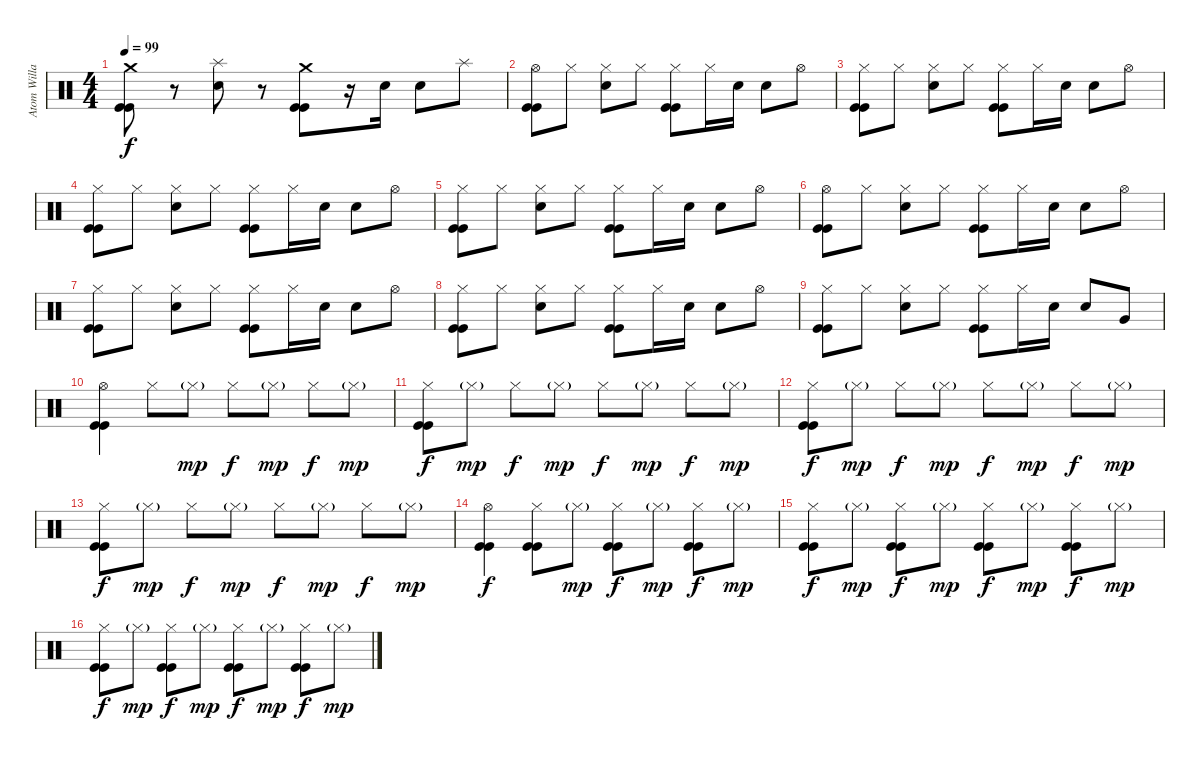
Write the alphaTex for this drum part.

\track ("Atom Willard" "Atom Willa") {instrument percussion}
\staff {score}
\articulation defaults
\ts (4 4)
\tempo 99
\clef neutral
\ks c
("Crash medium (hit)" "Kick (hit)" "Kick (hit)").8{dy f} r.8 ("Splash (hit)" "Electric Snare (hit)").8 r.8 ("Crash medium (hit)" "Kick (hit)" "Kick (hit)").8 r.16 "Electric Snare (hit)".16 "Electric Snare (hit)".8 "Splash (hit)".8 |
("Hi-Hat (open)" "Kick (hit)" "Kick (hit)").8 "Hi-Hat (closed)".8 ("Hi-Hat (closed)" "Electric Snare (hit)").8 "Hi-Hat (closed)".8 ("Hi-Hat (closed)" "Kick (hit)" "Kick (hit)").8 "Hi-Hat (closed)".16 "Electric Snare (hit)".16 "Electric Snare (hit)".8 "Hi-Hat (open)".8 |
("Hi-Hat (closed)" "Kick (hit)" "Kick (hit)").8 "Hi-Hat (closed)".8 ("Hi-Hat (closed)" "Electric Snare (hit)").8 "Hi-Hat (closed)".8 ("Hi-Hat (closed)" "Kick (hit)" "Kick (hit)").8 "Hi-Hat (closed)".16 "Electric Snare (hit)".16 "Electric Snare (hit)".8 "Hi-Hat (open)".8 |
("Hi-Hat (closed)" "Kick (hit)" "Kick (hit)").8 "Hi-Hat (closed)".8 ("Hi-Hat (closed)" "Electric Snare (hit)").8 "Hi-Hat (closed)".8 ("Hi-Hat (closed)" "Kick (hit)" "Kick (hit)").8 "Hi-Hat (closed)".16 "Electric Snare (hit)".16 "Electric Snare (hit)".8 "Hi-Hat (open)".8 |
("Hi-Hat (closed)" "Kick (hit)" "Kick (hit)").8 "Hi-Hat (closed)".8 ("Hi-Hat (closed)" "Electric Snare (hit)").8 "Hi-Hat (closed)".8 ("Hi-Hat (closed)" "Kick (hit)" "Kick (hit)").8 "Hi-Hat (closed)".16 "Electric Snare (hit)".16 "Electric Snare (hit)".8 "Hi-Hat (open)".8 |
("Hi-Hat (open)" "Kick (hit)" "Kick (hit)").8 "Hi-Hat (closed)".8 ("Hi-Hat (closed)" "Electric Snare (hit)").8 "Hi-Hat (closed)".8 ("Hi-Hat (closed)" "Kick (hit)" "Kick (hit)").8 "Hi-Hat (closed)".16 "Electric Snare (hit)".16 "Electric Snare (hit)".8 "Hi-Hat (open)".8 |
("Hi-Hat (closed)" "Kick (hit)" "Kick (hit)").8 "Hi-Hat (closed)".8 ("Hi-Hat (closed)" "Electric Snare (hit)").8 "Hi-Hat (closed)".8 ("Hi-Hat (closed)" "Kick (hit)" "Kick (hit)").8 "Hi-Hat (closed)".16 "Electric Snare (hit)".16 "Electric Snare (hit)".8 "Hi-Hat (open)".8 |
("Hi-Hat (closed)" "Kick (hit)" "Kick (hit)").8 "Hi-Hat (closed)".8 ("Hi-Hat (closed)" "Electric Snare (hit)").8 "Hi-Hat (closed)".8 ("Hi-Hat (closed)" "Kick (hit)" "Kick (hit)").8 "Hi-Hat (closed)".16 "Electric Snare (hit)".16 "Electric Snare (hit)".8 "Hi-Hat (open)".8 |
("Hi-Hat (closed)" "Kick (hit)" "Kick (hit)").8 "Hi-Hat (closed)".8 ("Hi-Hat (closed)" "Electric Snare (hit)").8 "Hi-Hat (closed)".8 ("Hi-Hat (closed)" "Kick (hit)" "Kick (hit)").8 "Hi-Hat (closed)".16 "Electric Snare (hit)".16 "Electric Snare (hit)".8 "Very Low Tom (hit)".8 |
("Hi-Hat (open)" "Kick (hit)" "Kick (hit)").4 "Hi-Hat (closed)".8 "Hi-Hat (closed)"{g}.8{dy mp} "Hi-Hat (closed)".8{dy f} "Hi-Hat (closed)"{g}.8{dy mp} "Hi-Hat (closed)".8{dy f} "Hi-Hat (closed)"{g}.8{dy mp} |
("Hi-Hat (closed)" "Kick (hit)" "Kick (hit)").8{dy f} "Hi-Hat (closed)"{g}.8{dy mp} "Hi-Hat (closed)".8{dy f} "Hi-Hat (closed)"{g}.8{dy mp} "Hi-Hat (closed)".8{dy f} "Hi-Hat (closed)"{g}.8{dy mp} "Hi-Hat (closed)".8{dy f} "Hi-Hat (closed)"{g}.8{dy mp} |
("Hi-Hat (closed)" "Kick (hit)" "Kick (hit)").8{dy f} "Hi-Hat (closed)"{g}.8{dy mp} "Hi-Hat (closed)".8{dy f} "Hi-Hat (closed)"{g}.8{dy mp} "Hi-Hat (closed)".8{dy f} "Hi-Hat (closed)"{g}.8{dy mp} "Hi-Hat (closed)".8{dy f} "Hi-Hat (closed)"{g}.8{dy mp} |
("Hi-Hat (closed)" "Kick (hit)" "Kick (hit)").8{dy f} "Hi-Hat (closed)"{g}.8{dy mp} "Hi-Hat (closed)".8{dy f} "Hi-Hat (closed)"{g}.8{dy mp} "Hi-Hat (closed)".8{dy f} "Hi-Hat (closed)"{g}.8{dy mp} "Hi-Hat (closed)".8{dy f} "Hi-Hat (closed)"{g}.8{dy mp} |
("Hi-Hat (open)" "Kick (hit)" "Kick (hit)").4{dy f} ("Hi-Hat (closed)" "Kick (hit)" "Kick (hit)").8 "Hi-Hat (closed)"{g}.8{dy mp} ("Hi-Hat (closed)" "Kick (hit)" "Kick (hit)").8{dy f} "Hi-Hat (closed)"{g}.8{dy mp} ("Hi-Hat (closed)" "Kick (hit)" "Kick (hit)").8{dy f} "Hi-Hat (closed)"{g}.8{dy mp} |
("Hi-Hat (closed)" "Kick (hit)" "Kick (hit)").8{dy f} "Hi-Hat (closed)"{g}.8{dy mp} ("Hi-Hat (closed)" "Kick (hit)" "Kick (hit)").8{dy f} "Hi-Hat (closed)"{g}.8{dy mp} ("Hi-Hat (closed)" "Kick (hit)" "Kick (hit)").8{dy f} "Hi-Hat (closed)"{g}.8{dy mp} ("Hi-Hat (closed)" "Kick (hit)" "Kick (hit)").8{dy f} "Hi-Hat (closed)"{g}.8{dy mp} |
("Hi-Hat (closed)" "Kick (hit)" "Kick (hit)").8{dy f} "Hi-Hat (closed)"{g}.8{dy mp} ("Hi-Hat (closed)" "Kick (hit)" "Kick (hit)").8{dy f} "Hi-Hat (closed)"{g}.8{dy mp} ("Hi-Hat (closed)" "Kick (hit)" "Kick (hit)").8{dy f} "Hi-Hat (closed)"{g}.8{dy mp} ("Hi-Hat (closed)" "Kick (hit)" "Kick (hit)").8{dy f} "Hi-Hat (closed)"{g}.8{dy mp}
